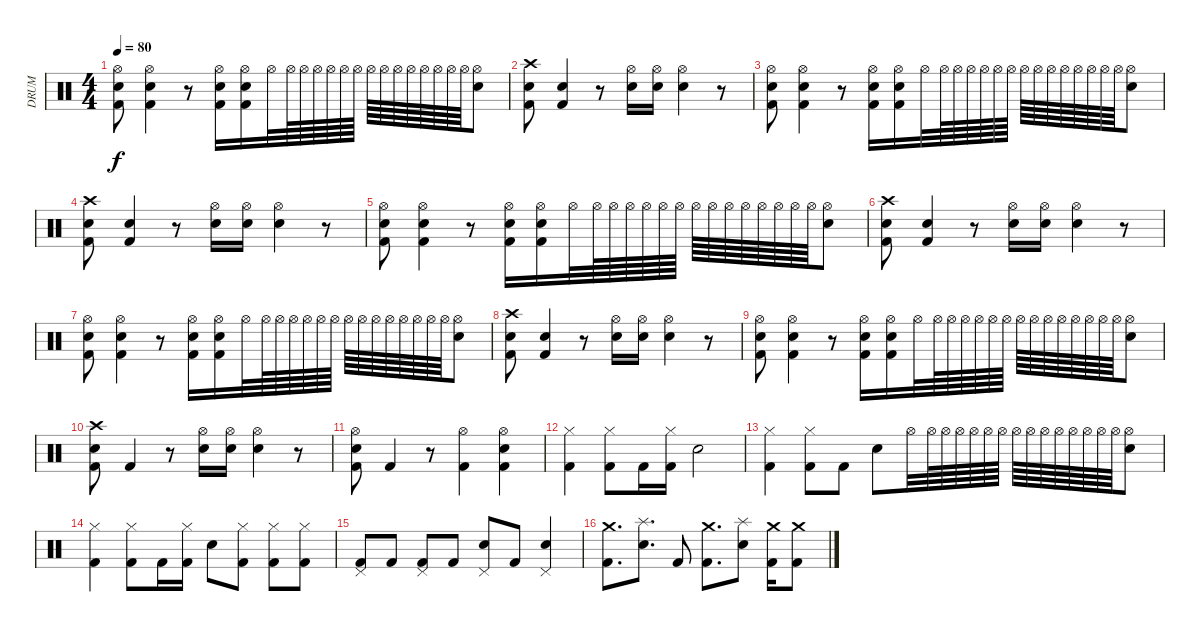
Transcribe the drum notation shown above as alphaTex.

\track ("DRUM" "DRUM") {instrument percussion}
\staff {score}
\articulation defaults
\ts (4 4)
\tempo 80
\clef neutral
\ks c
("Hi-Hat (open)" "Snare (hit) 2" "Kick (hit) 2").8{dy f} ("Hi-Hat (open)" "Electric Snare (hit)" "Kick (hit) 2").4 r.8 ("Hi-Hat (open)" "Snare (hit) 2" "Kick (hit) 2").16 ("Hi-Hat (open)" "Snare (hit) 2" "Kick (hit) 2").16 "Hi-Hat (open)".32 "Hi-Hat (open)".64 "Hi-Hat (open)".64 "Hi-Hat (open)".64 "Hi-Hat (open)".64 "Hi-Hat (open)".64 "Hi-Hat (open)".64 "Hi-Hat (open)".64 "Hi-Hat (open)".64 "Hi-Hat (open)".64 "Hi-Hat (open)".64 "Hi-Hat (open)".64 "Hi-Hat (open)".64 "Hi-Hat (open)".64 "Hi-Hat (open)".64 ("Hi-Hat (open)" "Snare (hit) 2").8 |
("Crash high (hit)" "Snare (hit) 2" "Kick (hit) 2").8 ("Snare (hit) 2" "Kick (hit) 2").4 r.8 ("Hi-Hat (open)" "Snare (hit) 2").16 ("Hi-Hat (open)" "Snare (hit) 2").16 ("Hi-Hat (open)" "Snare (hit) 2").4 r.8 |
("Hi-Hat (open)" "Snare (hit) 2" "Kick (hit) 2").8 ("Hi-Hat (open)" "Electric Snare (hit)" "Kick (hit) 2").4 r.8 ("Hi-Hat (open)" "Snare (hit) 2" "Kick (hit) 2").16 ("Hi-Hat (open)" "Snare (hit) 2" "Kick (hit) 2").16 "Hi-Hat (open)".32 "Hi-Hat (open)".64 "Hi-Hat (open)".64 "Hi-Hat (open)".64 "Hi-Hat (open)".64 "Hi-Hat (open)".64 "Hi-Hat (open)".64 "Hi-Hat (open)".64 "Hi-Hat (open)".64 "Hi-Hat (open)".64 "Hi-Hat (open)".64 "Hi-Hat (open)".64 "Hi-Hat (open)".64 "Hi-Hat (open)".64 "Hi-Hat (open)".64 ("Hi-Hat (open)" "Snare (hit) 2").8 |
("Crash high (hit)" "Snare (hit) 2" "Kick (hit) 2").8 ("Snare (hit) 2" "Kick (hit) 2").4 r.8 ("Hi-Hat (open)" "Snare (hit) 2").16 ("Hi-Hat (open)" "Snare (hit) 2").16 ("Hi-Hat (open)" "Snare (hit) 2").4 r.8 |
("Hi-Hat (open)" "Snare (hit) 2" "Kick (hit) 2").8 ("Hi-Hat (open)" "Electric Snare (hit)" "Kick (hit) 2").4 r.8 ("Hi-Hat (open)" "Snare (hit) 2" "Kick (hit) 2").16 ("Hi-Hat (open)" "Snare (hit) 2" "Kick (hit) 2").16 "Hi-Hat (open)".32 "Hi-Hat (open)".64 "Hi-Hat (open)".64 "Hi-Hat (open)".64 "Hi-Hat (open)".64 "Hi-Hat (open)".64 "Hi-Hat (open)".64 "Hi-Hat (open)".64 "Hi-Hat (open)".64 "Hi-Hat (open)".64 "Hi-Hat (open)".64 "Hi-Hat (open)".64 "Hi-Hat (open)".64 "Hi-Hat (open)".64 "Hi-Hat (open)".64 ("Hi-Hat (open)" "Snare (hit) 2").8 |
("Crash high (hit)" "Snare (hit) 2" "Kick (hit) 2").8 ("Snare (hit) 2" "Kick (hit) 2").4 r.8 ("Hi-Hat (open)" "Snare (hit) 2").16 ("Hi-Hat (open)" "Snare (hit) 2").16 ("Hi-Hat (open)" "Snare (hit) 2").4 r.8 |
("Hi-Hat (open)" "Snare (hit) 2" "Kick (hit) 2").8 ("Hi-Hat (open)" "Electric Snare (hit)" "Kick (hit) 2").4 r.8 ("Hi-Hat (open)" "Snare (hit) 2" "Kick (hit) 2").16 ("Hi-Hat (open)" "Snare (hit) 2" "Kick (hit) 2").16 "Hi-Hat (open)".32 "Hi-Hat (open)".64 "Hi-Hat (open)".64 "Hi-Hat (open)".64 "Hi-Hat (open)".64 "Hi-Hat (open)".64 "Hi-Hat (open)".64 "Hi-Hat (open)".64 "Hi-Hat (open)".64 "Hi-Hat (open)".64 "Hi-Hat (open)".64 "Hi-Hat (open)".64 "Hi-Hat (open)".64 "Hi-Hat (open)".64 "Hi-Hat (open)".64 ("Hi-Hat (open)" "Snare (hit) 2").8 |
("Crash high (hit)" "Snare (hit) 2" "Kick (hit) 2").8 ("Snare (hit) 2" "Kick (hit) 2").4 r.8 ("Hi-Hat (open)" "Snare (hit) 2").16 ("Hi-Hat (open)" "Snare (hit) 2").16 ("Hi-Hat (open)" "Snare (hit) 2").4 r.8 |
("Hi-Hat (open)" "Snare (hit) 2" "Kick (hit) 2").8 ("Hi-Hat (open)" "Electric Snare (hit)" "Kick (hit) 2").4 r.8 ("Hi-Hat (open)" "Snare (hit) 2" "Kick (hit) 2").16 ("Hi-Hat (open)" "Snare (hit) 2" "Kick (hit) 2").16 "Hi-Hat (open)".32 "Hi-Hat (open)".64 "Hi-Hat (open)".64 "Hi-Hat (open)".64 "Hi-Hat (open)".64 "Hi-Hat (open)".64 "Hi-Hat (open)".64 "Hi-Hat (open)".64 "Hi-Hat (open)".64 "Hi-Hat (open)".64 "Hi-Hat (open)".64 "Hi-Hat (open)".64 "Hi-Hat (open)".64 "Hi-Hat (open)".64 "Hi-Hat (open)".64 ("Hi-Hat (open)" "Snare (hit) 2").8 |
("Crash high (hit)" "Snare (hit) 2" "Kick (hit) 2").8 "Kick (hit) 2".4 r.8 ("Hi-Hat (open)" "Snare (hit) 2").16 ("Hi-Hat (open)" "Snare (hit) 2").16 ("Hi-Hat (open)" "Snare (hit) 2").4 r.8 |
("Hi-Hat (open)" "Snare (hit) 2" "Kick (hit) 2").8 "Kick (hit) 2".4 r.8 ("Hi-Hat (open)" "Kick (hit) 2").4 ("Hi-Hat (open)" "Electric Snare (hit)" "Kick (hit) 2").4 |
("Hi-Hat (closed)" "Kick (hit) 2").4 ("Hi-Hat (closed)" "Kick (hit) 2").8 "Kick (hit) 2".16 ("Hi-Hat (closed)" "Kick (hit) 2").16 "Electric Snare (hit)".2 |
("Hi-Hat (closed)" "Kick (hit) 2").4 ("Hi-Hat (closed)" "Kick (hit) 2").8 "Kick (hit) 2".8 "Electric Snare (hit)".8 "Hi-Hat (open)".32 "Hi-Hat (open)".64 "Hi-Hat (open)".64 "Hi-Hat (open)".64 "Hi-Hat (open)".64 "Hi-Hat (open)".64 "Hi-Hat (open)".64 "Hi-Hat (open)".64 "Hi-Hat (open)".64 "Hi-Hat (open)".64 "Hi-Hat (open)".64 "Hi-Hat (open)".64 "Hi-Hat (open)".64 "Hi-Hat (open)".64 "Hi-Hat (open)".64 ("Hi-Hat (open)" "Snare (hit) 2").8 |
("Hi-Hat (closed)" "Kick (hit) 2").4 ("Hi-Hat (closed)" "Kick (hit) 2").8 "Kick (hit) 2".16 ("Hi-Hat (closed)" "Kick (hit) 2").16 "Electric Snare (hit)".8 ("Hi-Hat (closed)" "Kick (hit) 2").8 ("Hi-Hat (closed)" "Kick (hit) 2").8 ("Hi-Hat (closed)" "Kick (hit) 2").8 |
("Pedal Hi-Hat (hit)" "Kick (hit) 2").8 "Kick (hit) 2".8 ("Pedal Hi-Hat (hit)" "Kick (hit) 2").8 "Kick (hit) 2".8 ("Pedal Hi-Hat (hit)" "Electric Snare (hit)").8 "Kick (hit) 2".8 ("Pedal Hi-Hat (hit)" "Electric Snare (hit)").4 |
("Crash medium (hit)" "Kick (hit) 2").8{d} ("Splash (hit)" "Electric Snare (hit)").8{d} "Kick (hit) 2".8 ("Crash medium (hit)" "Kick (hit) 2").8{d} ("Splash (hit)" "Electric Snare (hit)").8 ("Crash medium (hit)" "Kick (hit) 2").16 ("Crash medium (hit)" "Kick (hit) 2").8
